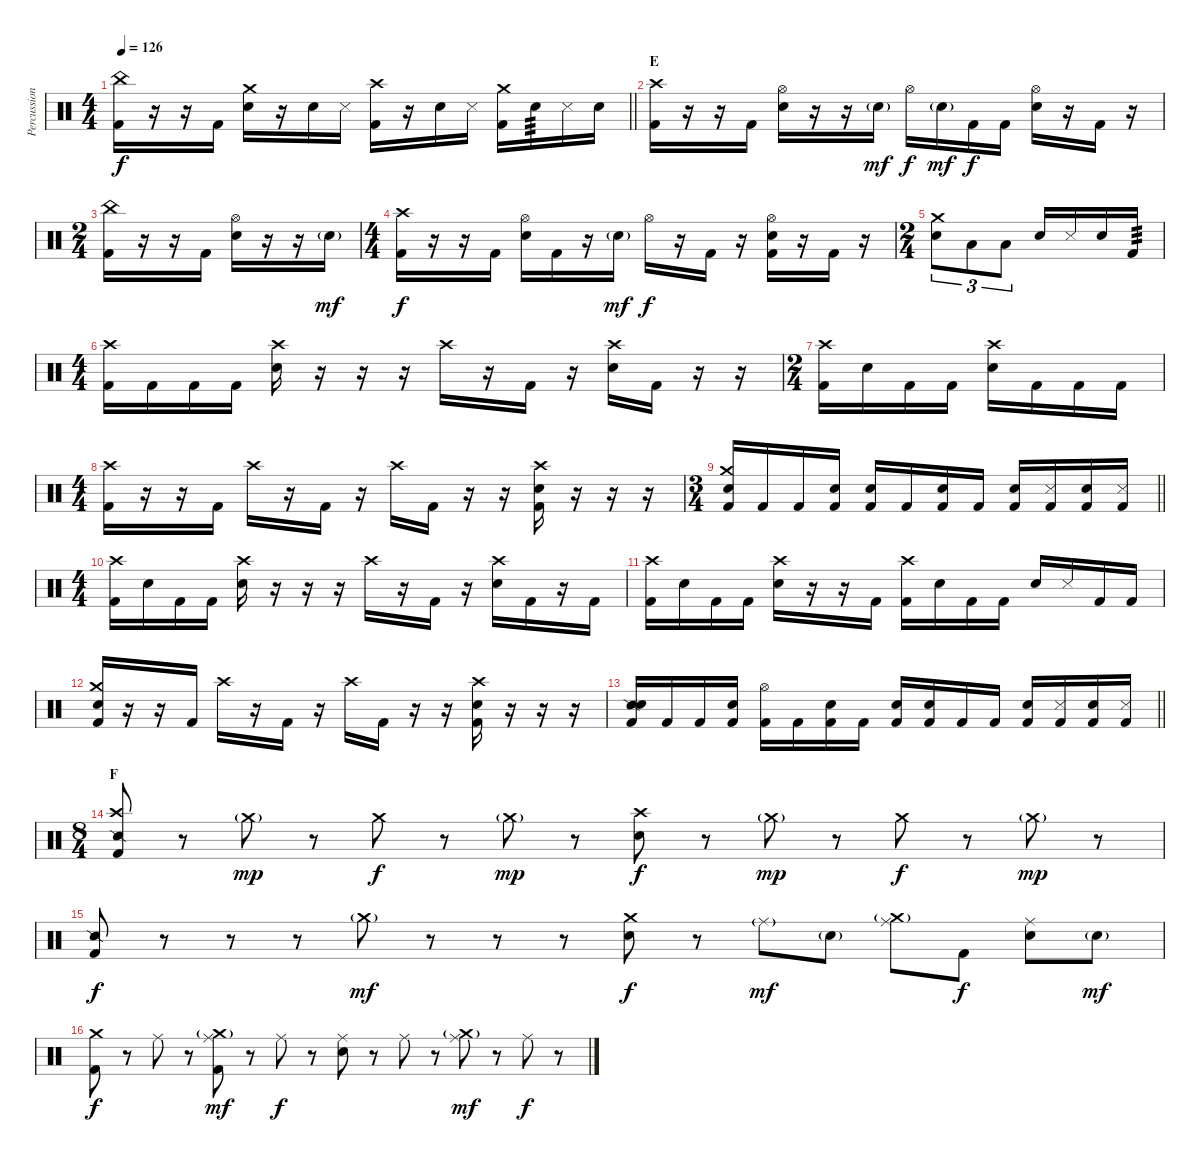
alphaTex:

\track ("Percussion" "Percussion") {instrument percussion}
\staff {score}
\articulation defaults
\ts (4 4)
\tempo 126
\clef neutral
\barLineRight lightlight
\ks c
("China (hit)" "Kick (hit) 2").16{dy f} r.16 r.16 "Kick (hit) 2".16 ("Crash medium (hit)" "Snare (hit) 2").16 r.16 "Snare (hit) 2".16 "Metronome (hit)".16 ("Crash high (hit)" "Kick (hit) 2").16 r.16 "Snare (hit) 2".16 "Metronome (hit)".16 ("Crash medium (hit)" "Kick (hit) 2").16 "Snare (hit) 2".16{tp 3} "Metronome (hit)".16 "Snare (hit) 2".16 |
\section ("" "E")
("Crash high (hit)" "Kick (hit) 2").16 r.16 r.16 "Kick (hit) 2".16 ("Hi-Hat (open)" "Snare (hit) 2").16 r.16 r.16 "Snare (hit) 2"{g}.16{dy mf} "Hi-Hat (open)".16{dy f} "Snare (hit) 2"{g}.16{dy mf} "Kick (hit) 2".16{dy f} "Kick (hit) 2".16 ("Hi-Hat (open)" "Snare (hit) 2").16 r.16 "Kick (hit) 2".16 r.16 |
\ts (2 4)
("China (hit)" "Kick (hit) 2").16 r.16 r.16 "Kick (hit) 2".16 ("Hi-Hat (open)" "Snare (hit) 2").16 r.16 r.16 "Snare (hit) 2"{g}.16{dy mf} |
\ts (4 4)
("Crash high (hit)" "Kick (hit) 2").16{dy f} r.16 r.16 "Kick (hit) 2".16 ("Hi-Hat (open)" "Snare (hit) 2").16 "Kick (hit) 2".16 r.16 "Snare (hit) 2"{g}.16{dy mf} "Hi-Hat (open)".16{dy f} r.16 "Kick (hit) 2".16 r.16 ("Hi-Hat (open)" "Snare (hit) 2" "Kick (hit) 2").16 r.16 "Kick (hit) 2".16 r.16 |
\ts (2 4)
("Crash medium (hit)" "Snare (hit) 2").8{tu (3 2)} "Low Tom (hit)".8{tu (3 2)} "Low Tom (hit)".8{tu (3 2)} "Snare (hit) 2".16 "Metronome (hit)".16 "Snare (hit) 2".16 "Kick (hit) 2".16{tp 3} |
\ts (4 4)
("Crash high (hit)" "Kick (hit) 2").16 "Kick (hit) 2".16 "Kick (hit) 2".16 "Kick (hit) 2".16 ("Crash high (hit)" "Snare (hit) 2").16 r.16 r.16 r.16 "Crash high (hit)".16 r.16 "Kick (hit) 2".16 r.16 ("Crash high (hit)" "Snare (hit) 2").16 "Kick (hit) 2".16 r.16 r.16 |
\ts (2 4)
("Crash high (hit)" "Kick (hit) 2").16 "Snare (hit) 2".16 "Kick (hit) 2".16 "Kick (hit) 2".16 ("Crash high (hit)" "Snare (hit) 2").16 "Kick (hit) 2".16 "Kick (hit) 2".16 "Kick (hit) 2".16 |
\ts (4 4)
("Crash high (hit)" "Kick (hit) 2").16 r.16 r.16 "Kick (hit) 2".16 "Crash high (hit)".16 r.16 "Kick (hit) 2".16 r.16 "Crash high (hit)".16 "Kick (hit) 2".16 r.16 r.16 ("Crash high (hit)" "Snare (hit) 2" "Kick (hit) 2").16 r.16 r.16 r.16 |
\ts (3 4)
\barLineRight lightlight
("Crash medium (hit)" "Snare (hit) 2" "Kick (hit) 2").16 "Kick (hit) 2".16 "Kick (hit) 2".16 ("Snare (hit) 2" "Kick (hit) 2").16 ("Snare (hit)" "Kick (hit) 2").16 "Kick (hit) 2".16 ("Snare (hit) 2" "Kick (hit) 2").16 "Kick (hit) 2".16 ("Snare (hit) 2" "Kick (hit) 2").16 ("Metronome (hit)" "Kick (hit) 2").16 ("Snare (hit) 2" "Kick (hit) 2").16 ("Metronome (hit)" "Kick (hit) 2").16 |
\ts (4 4)
("Crash high (hit)" "Kick (hit) 2").16 "Snare (hit) 2".16 "Kick (hit) 2".16 "Kick (hit) 2".16 ("Crash high (hit)" "Snare (hit) 2").16 r.16 r.16 r.16 "Crash high (hit)".16 r.16 "Kick (hit) 2".16 r.16 ("Crash high (hit)" "Snare (hit) 2").16 "Kick (hit) 2".16 r.16 "Kick (hit) 2".16 |
("Crash high (hit)" "Kick (hit) 2").16 "Snare (hit) 2".16 "Kick (hit) 2".16 "Kick (hit) 2".16 ("Crash high (hit)" "Snare (hit) 2").16 r.16 r.16 "Kick (hit) 2".16 ("Crash high (hit)" "Kick (hit) 2").16 "Snare (hit) 2".16 "Kick (hit) 2".16 "Kick (hit) 2".16 "Snare (hit) 2".16 "Metronome (hit)".16 "Kick (hit) 2".16 "Kick (hit) 2".16 |
("Crash medium (hit)" "Snare (hit) 2" "Kick (hit) 2").16 r.16 r.16 "Kick (hit) 2".16 "Crash high (hit)".16 r.16 "Kick (hit) 2".16 r.16 "Crash high (hit)".16 "Kick (hit) 2".16 r.16 r.16 ("Crash high (hit)" "Snare (hit) 2" "Kick (hit) 2").16 r.16 r.16 r.16 |
\barLineRight lightlight
("Snare (side stick) 2" "Snare (hit) 2" "Kick (hit) 2").16 "Kick (hit) 2".16 "Kick (hit) 2".16 ("Snare (hit) 2" "Kick (hit) 2").16 ("Hi-Hat (open)" "Kick (hit) 2").16 "Kick (hit) 2".16 ("Snare (hit) 2" "Kick (hit) 2").16 "Kick (hit) 2".16 ("Snare (hit)" "Kick (hit) 2").16 ("Snare (hit) 2" "Kick (hit) 2").16 "Kick (hit) 2".16 "Kick (hit) 2".16 ("Snare (hit) 2" "Kick (hit) 2").16 ("Metronome (hit)" "Kick (hit) 2").16 ("Snare (hit) 2" "Kick (hit) 2").16 ("Metronome (hit)" "Kick (hit) 2").16 |
\ts (8 4)
\section ("" "F")
("Snare (side stick) 2" "Crash high (hit)" "Kick (hit) 2").8 r.8 "Crash medium (hit)"{g}.8{dy mp} r.8 "Crash medium (hit)".8{dy f} r.8 "Crash medium (hit)"{g}.8{dy mp} r.8 ("Crash high (hit)" "Snare (hit) 2").8{dy f} r.8 "Crash medium (hit)"{g}.8{dy mp} r.8 "Crash medium (hit)".8{dy f} r.8 "Crash medium (hit)"{g}.8{dy mp} r.8 |
("Snare (side stick) 2" "Kick (hit) 2").8{dy f} r.8 r.8 r.8 "Crash medium (hit)"{g}.8{dy mf} r.8 r.8 r.8 ("Crash medium (hit)" "Snare (hit) 2").8{dy f} r.8 "Ride (middle)"{g}.8{dy mf} "Snare (hit) 2"{g}.8 ("Ride (middle)" "Crash medium (hit)"{g}).8 "Kick (hit) 2".8{dy f} ("Ride (middle)" "Snare (hit) 2").8 "Snare (hit) 2"{g}.8{dy mf} |
("Crash medium (hit)" "Kick (hit) 2").8{dy f} r.8 "Ride (middle)".8 r.8 ("Ride (middle)" "Crash medium (hit)"{g} "Kick (hit) 2").8{dy mf} r.8 "Ride (middle)".8{dy f} r.8 ("Ride (middle)" "Snare (hit) 2").8 r.8 "Ride (middle)".8 r.8 ("Ride (middle)" "Crash medium (hit)"{g}).8{dy mf} r.8 "Ride (middle)".8{dy f} r.8
